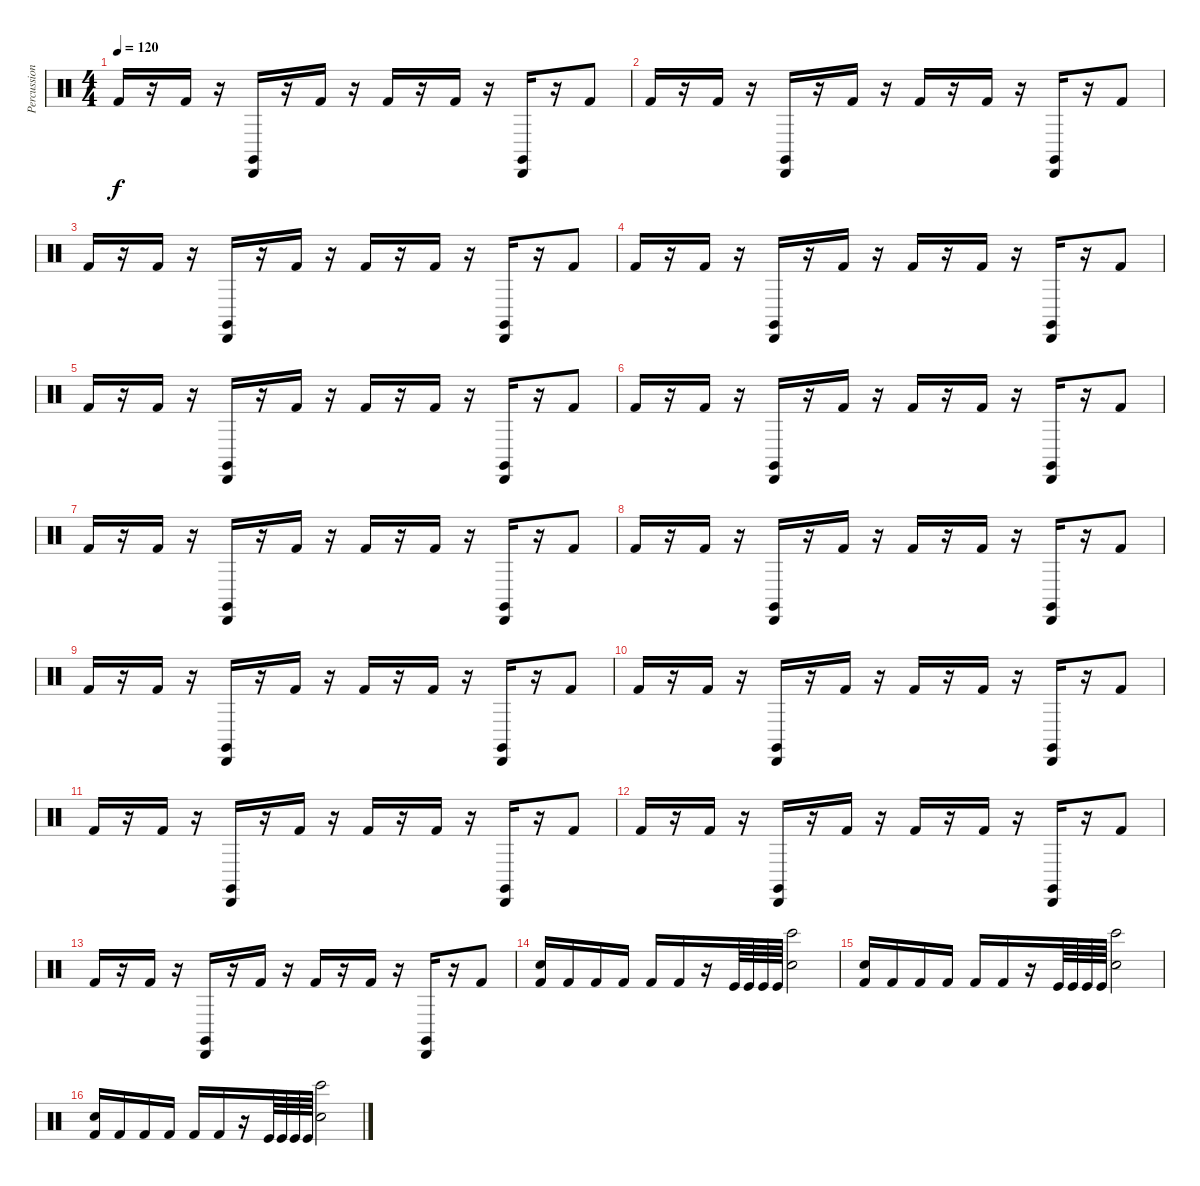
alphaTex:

\track ("Percussion" "Percussion") {instrument percussion}
\staff {score}
\articulation defaults
\ts (4 4)
\tempo 120
\clef neutral
\ks c "Kick (hit) 2".16{dy f}
r.16 "Kick (hit) 2".16 r.16 ("Cabasa (hit)" "Claves (hit)").16 r.16 "Kick (hit) 2".16 r.16 "Kick (hit) 2".16 r.16 "Kick (hit) 2".16 r.16 ("Cabasa (hit)" "Claves (hit)").16 r.16 "Kick (hit) 2".8 |
"Kick (hit) 2".16 r.16 "Kick (hit) 2".16 r.16 ("Cabasa (hit)" "Claves (hit)").16 r.16 "Kick (hit) 2".16 r.16 "Kick (hit) 2".16 r.16 "Kick (hit) 2".16 r.16 ("Cabasa (hit)" "Claves (hit)").16 r.16 "Kick (hit) 2".8 |
"Kick (hit) 2".16 r.16 "Kick (hit) 2".16 r.16 ("Cabasa (hit)" "Claves (hit)").16 r.16 "Kick (hit) 2".16 r.16 "Kick (hit) 2".16 r.16 "Kick (hit) 2".16 r.16 ("Cabasa (hit)" "Claves (hit)").16 r.16 "Kick (hit) 2".8 |
"Kick (hit) 2".16 r.16 "Kick (hit) 2".16 r.16 ("Cabasa (hit)" "Claves (hit)").16 r.16 "Kick (hit) 2".16 r.16 "Kick (hit) 2".16 r.16 "Kick (hit) 2".16 r.16 ("Cabasa (hit)" "Claves (hit)").16 r.16 "Kick (hit) 2".8 |
"Kick (hit) 2".16 r.16 "Kick (hit) 2".16 r.16 ("Cabasa (hit)" "Claves (hit)").16 r.16 "Kick (hit) 2".16 r.16 "Kick (hit) 2".16 r.16 "Kick (hit) 2".16 r.16 ("Cabasa (hit)" "Claves (hit)").16 r.16 "Kick (hit) 2".8 |
"Kick (hit) 2".16 r.16 "Kick (hit) 2".16 r.16 ("Cabasa (hit)" "Claves (hit)").16 r.16 "Kick (hit) 2".16 r.16 "Kick (hit) 2".16 r.16 "Kick (hit) 2".16 r.16 ("Cabasa (hit)" "Claves (hit)").16 r.16 "Kick (hit) 2".8 |
"Kick (hit) 2".16 r.16 "Kick (hit) 2".16 r.16 ("Cabasa (hit)" "Claves (hit)").16 r.16 "Kick (hit) 2".16 r.16 "Kick (hit) 2".16 r.16 "Kick (hit) 2".16 r.16 ("Cabasa (hit)" "Claves (hit)").16 r.16 "Kick (hit) 2".8 |
"Kick (hit) 2".16 r.16 "Kick (hit) 2".16 r.16 ("Cabasa (hit)" "Claves (hit)").16 r.16 "Kick (hit) 2".16 r.16 "Kick (hit) 2".16 r.16 "Kick (hit) 2".16 r.16 ("Cabasa (hit)" "Claves (hit)").16 r.16 "Kick (hit) 2".8 |
"Kick (hit) 2".16 r.16 "Kick (hit) 2".16 r.16 ("Cabasa (hit)" "Claves (hit)").16 r.16 "Kick (hit) 2".16 r.16 "Kick (hit) 2".16 r.16 "Kick (hit) 2".16 r.16 ("Cabasa (hit)" "Claves (hit)").16 r.16 "Kick (hit) 2".8 |
"Kick (hit) 2".16 r.16 "Kick (hit) 2".16 r.16 ("Cabasa (hit)" "Claves (hit)").16 r.16 "Kick (hit) 2".16 r.16 "Kick (hit) 2".16 r.16 "Kick (hit) 2".16 r.16 ("Cabasa (hit)" "Claves (hit)").16 r.16 "Kick (hit) 2".8 |
"Kick (hit) 2".16 r.16 "Kick (hit) 2".16 r.16 ("Cabasa (hit)" "Claves (hit)").16 r.16 "Kick (hit) 2".16 r.16 "Kick (hit) 2".16 r.16 "Kick (hit) 2".16 r.16 ("Cabasa (hit)" "Claves (hit)").16 r.16 "Kick (hit) 2".8 |
"Kick (hit) 2".16 r.16 "Kick (hit) 2".16 r.16 ("Cabasa (hit)" "Claves (hit)").16 r.16 "Kick (hit) 2".16 r.16 "Kick (hit) 2".16 r.16 "Kick (hit) 2".16 r.16 ("Cabasa (hit)" "Claves (hit)").16 r.16 "Kick (hit) 2".8 |
"Kick (hit) 2".16 r.16 "Kick (hit) 2".16 r.16 ("Cabasa (hit)" "Claves (hit)").16 r.16 "Kick (hit) 2".16 r.16 "Kick (hit) 2".16 r.16 "Kick (hit) 2".16 r.16 ("Cabasa (hit)" "Claves (hit)").16 r.16 "Kick (hit) 2".8 |
("Kick (hit) 2" "Snare (hit) 2").16 "Kick (hit) 2".16 "Kick (hit) 2".16 "Kick (hit) 2".16 "Kick (hit) 2".16 "Kick (hit) 2".16 r.16 "Kick (hit)".64 "Kick (hit)".64 "Kick (hit)".64 "Kick (hit)".64 ("Bongo High (hit)" "Snare (hit) 2").2 |
("Kick (hit) 2" "Snare (hit) 2").16 "Kick (hit) 2".16 "Kick (hit) 2".16 "Kick (hit) 2".16 "Kick (hit) 2".16 "Kick (hit) 2".16 r.16 "Kick (hit)".64 "Kick (hit)".64 "Kick (hit)".64 "Kick (hit)".64 ("Bongo High (hit)" "Snare (hit) 2").2 |
("Kick (hit) 2" "Snare (hit) 2").16 "Kick (hit) 2".16 "Kick (hit) 2".16 "Kick (hit) 2".16 "Kick (hit) 2".16 "Kick (hit) 2".16 r.16 "Kick (hit)".64 "Kick (hit)".64 "Kick (hit)".64 "Kick (hit)".64 ("Bongo High (hit)" "Snare (hit) 2").2
